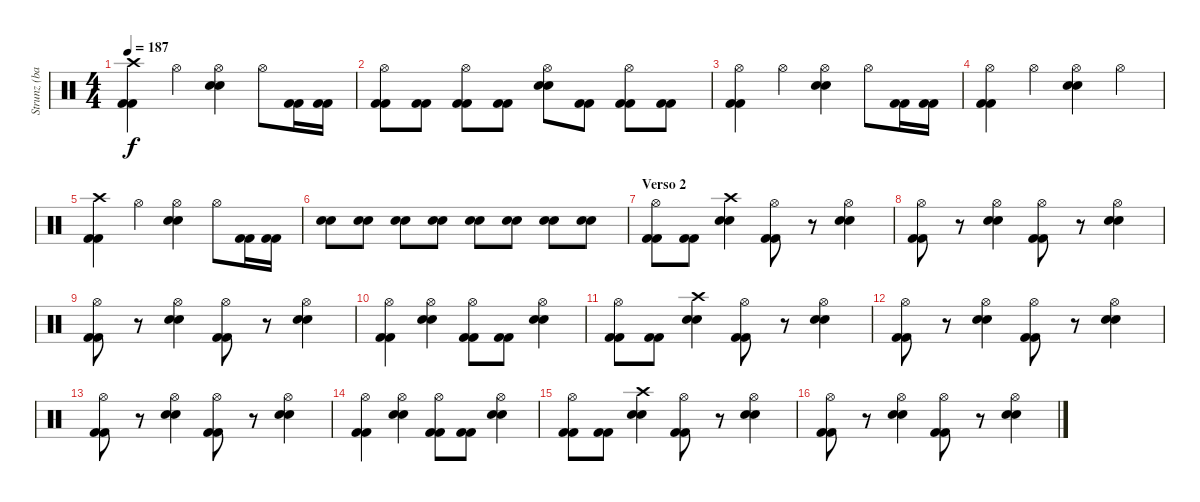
\track ("Strunz (bateria)" "Strunz (ba") {instrument percussion}
\staff {score}
\articulation defaults
\ts (4 4)
\tempo 187
\clef neutral
\ks c
("Crash high (hit)" "Kick (hit) 2" "Kick (hit) 2").4{dy f} "Hi-Hat (open)".4 ("Hi-Hat (open)" "Snare (hit) 2" "Snare (hit) 2").4 "Hi-Hat (open)".8 ("Kick (hit) 2" "Kick (hit) 2").16 ("Kick (hit) 2" "Kick (hit) 2").16 |
("Hi-Hat (open)" "Kick (hit) 2" "Kick (hit) 2").8 ("Kick (hit) 2" "Kick (hit) 2").8 ("Hi-Hat (open)" "Kick (hit) 2" "Kick (hit) 2").8 ("Kick (hit) 2" "Kick (hit) 2").8 ("Hi-Hat (open)" "Snare (hit) 2" "Snare (hit) 2").8 ("Kick (hit) 2" "Kick (hit) 2").8 ("Hi-Hat (open)" "Kick (hit) 2" "Kick (hit) 2").8 ("Kick (hit) 2" "Kick (hit) 2").8 |
("Hi-Hat (open)" "Kick (hit) 2" "Kick (hit) 2").4 "Hi-Hat (open)".4 ("Hi-Hat (open)" "Snare (hit) 2" "Snare (hit) 2").4 "Hi-Hat (open)".8 ("Kick (hit) 2" "Kick (hit) 2").16 ("Kick (hit) 2" "Kick (hit) 2").16 |
("Hi-Hat (open)" "Kick (hit) 2" "Kick (hit) 2").4 "Hi-Hat (open)".4 ("Hi-Hat (open)" "Snare (hit) 2" "Snare (hit) 2").4 "Hi-Hat (open)".4 |
("Crash high (hit)" "Kick (hit) 2" "Kick (hit) 2").4 "Hi-Hat (open)".4 ("Hi-Hat (open)" "Snare (hit) 2" "Snare (hit) 2").4 "Hi-Hat (open)".8 ("Kick (hit) 2" "Kick (hit) 2").16 ("Kick (hit) 2" "Kick (hit) 2").16 |
("Snare (hit) 2" "Snare (hit) 2").8 ("Snare (hit) 2" "Snare (hit) 2").8 ("Snare (hit) 2" "Snare (hit) 2").8 ("Snare (hit) 2" "Snare (hit) 2").8 ("Snare (hit) 2" "Snare (hit) 2").8 ("Snare (hit) 2" "Snare (hit) 2").8 ("Snare (hit) 2" "Snare (hit) 2").8 ("Snare (hit) 2" "Snare (hit) 2").8 |
\section ("" "Verso 2")
("Hi-Hat (open)" "Kick (hit) 2" "Kick (hit) 2").8 ("Kick (hit) 2" "Kick (hit) 2").8 ("Crash high (hit)" "Snare (hit) 2" "Snare (hit) 2").4 ("Hi-Hat (open)" "Kick (hit) 2" "Kick (hit) 2").8 r.8 ("Hi-Hat (open)" "Snare (hit) 2" "Snare (hit) 2").4 |
("Hi-Hat (open)" "Kick (hit) 2" "Kick (hit) 2").8 r.8 ("Hi-Hat (open)" "Snare (hit) 2" "Snare (hit) 2").4 ("Hi-Hat (open)" "Kick (hit) 2" "Kick (hit) 2").8 r.8 ("Hi-Hat (open)" "Snare (hit) 2" "Snare (hit) 2").4 |
("Hi-Hat (open)" "Kick (hit) 2" "Kick (hit) 2").8 r.8 ("Hi-Hat (open)" "Snare (hit) 2" "Snare (hit) 2").4 ("Hi-Hat (open)" "Kick (hit) 2" "Kick (hit) 2").8 r.8 ("Hi-Hat (open)" "Snare (hit) 2" "Snare (hit) 2").4 |
("Hi-Hat (open)" "Kick (hit) 2" "Kick (hit) 2").4 ("Hi-Hat (open)" "Snare (hit) 2" "Snare (hit) 2").4 ("Hi-Hat (open)" "Kick (hit) 2" "Kick (hit) 2").8 ("Kick (hit) 2" "Kick (hit) 2").8 ("Hi-Hat (open)" "Snare (hit) 2" "Snare (hit) 2").4 |
("Hi-Hat (open)" "Kick (hit) 2" "Kick (hit) 2").8 ("Kick (hit) 2" "Kick (hit) 2").8 ("Crash high (hit)" "Snare (hit) 2" "Snare (hit) 2").4 ("Hi-Hat (open)" "Kick (hit) 2" "Kick (hit) 2").8 r.8 ("Hi-Hat (open)" "Snare (hit) 2" "Snare (hit) 2").4 |
("Hi-Hat (open)" "Kick (hit) 2" "Kick (hit) 2").8 r.8 ("Hi-Hat (open)" "Snare (hit) 2" "Snare (hit) 2").4 ("Hi-Hat (open)" "Kick (hit) 2" "Kick (hit) 2").8 r.8 ("Hi-Hat (open)" "Snare (hit) 2" "Snare (hit) 2").4 |
("Hi-Hat (open)" "Kick (hit) 2" "Kick (hit) 2").8 r.8 ("Hi-Hat (open)" "Snare (hit) 2" "Snare (hit) 2").4 ("Hi-Hat (open)" "Kick (hit) 2" "Kick (hit) 2").8 r.8 ("Hi-Hat (open)" "Snare (hit) 2" "Snare (hit) 2").4 |
("Hi-Hat (open)" "Kick (hit) 2" "Kick (hit) 2").4 ("Hi-Hat (open)" "Snare (hit) 2" "Snare (hit) 2").4 ("Hi-Hat (open)" "Kick (hit) 2" "Kick (hit) 2").8 ("Kick (hit) 2" "Kick (hit) 2").8 ("Hi-Hat (open)" "Snare (hit) 2" "Snare (hit) 2").4 |
("Hi-Hat (open)" "Kick (hit) 2" "Kick (hit) 2").8 ("Kick (hit) 2" "Kick (hit) 2").8 ("Crash high (hit)" "Snare (hit) 2" "Snare (hit) 2").4 ("Hi-Hat (open)" "Kick (hit) 2" "Kick (hit) 2").8 r.8 ("Hi-Hat (open)" "Snare (hit) 2" "Snare (hit) 2").4 |
("Hi-Hat (open)" "Kick (hit) 2" "Kick (hit) 2").8 r.8 ("Hi-Hat (open)" "Snare (hit) 2" "Snare (hit) 2").4 ("Hi-Hat (open)" "Kick (hit) 2" "Kick (hit) 2").8 r.8 ("Hi-Hat (open)" "Snare (hit) 2" "Snare (hit) 2").4
